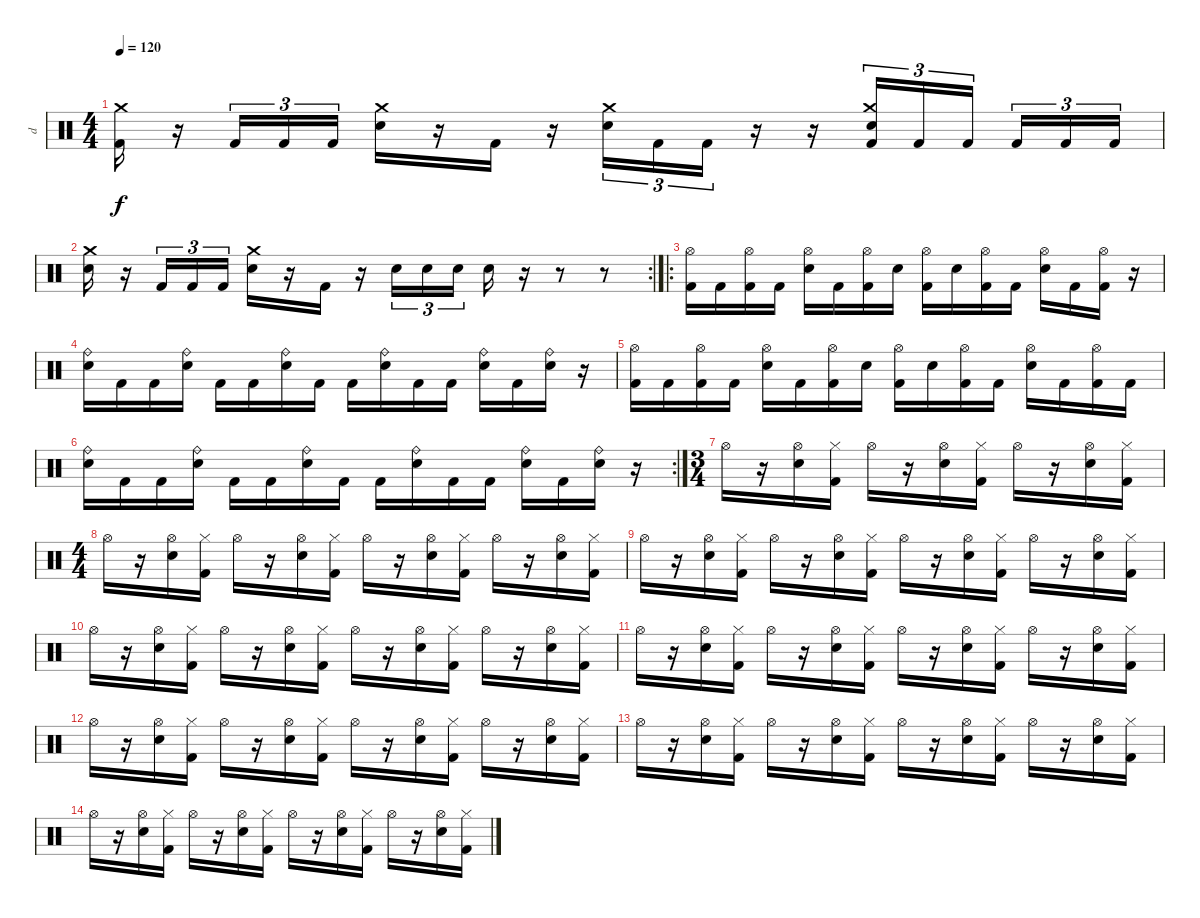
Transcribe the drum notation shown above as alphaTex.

\track ("d" "d") {instrument percussion}
\staff {score}
\articulation defaults
\ts (4 4)
\tempo 120
\clef neutral
\ks c
("Kick (hit) 2" "Crash medium (hit)").16{dy f} r.16 "Kick (hit) 2".16{tu (3 2)} "Kick (hit) 2".16{tu (3 2)} "Kick (hit) 2".16{tu (3 2)} ("Electric Snare (hit)" "Crash medium (hit)").16 r.16 "Kick (hit) 2".16 r.16 ("Electric Snare (hit)" "Crash medium (hit)").16{tu (3 2)} "Kick (hit) 2".16{tu (3 2)} "Kick (hit) 2".16{tu (3 2)} r.16 r.16 ("Kick (hit) 2" "Electric Snare (hit)" "Crash medium (hit)").16{tu (3 2)} "Kick (hit) 2".16{tu (3 2)} "Kick (hit) 2".16{tu (3 2)} "Kick (hit) 2".16{tu (3 2)} "Kick (hit) 2".16{tu (3 2)} "Kick (hit) 2".16{tu (3 2)} |
\rc 2
("Electric Snare (hit)" "Crash medium (hit)").16 r.16 "Kick (hit) 2".16{tu (3 2)} "Kick (hit) 2".16{tu (3 2)} "Kick (hit) 2".16{tu (3 2)} ("Electric Snare (hit)" "Crash medium (hit)").16 r.16 "Kick (hit) 2".16 r.16 "Electric Snare (hit)".16{tu (3 2)} "Electric Snare (hit)".16{tu (3 2)} "Electric Snare (hit)".16{tu (3 2)} "Electric Snare (hit)".16 r.16 r.8 r.8 |
\ro
("Hi-Hat (open)" "Kick (hit) 2").16 "Kick (hit) 2".16 ("Hi-Hat (open)" "Kick (hit) 2").16 "Kick (hit) 2".16 ("Hi-Hat (open)" "Electric Snare (hit)").16 "Kick (hit) 2".16 ("Hi-Hat (open)" "Kick (hit) 2").16 "Electric Snare (hit)".16 ("Hi-Hat (open)" "Kick (hit) 2").16 "Electric Snare (hit)".16 ("Hi-Hat (open)" "Kick (hit) 2").16 "Kick (hit) 2".16 ("Hi-Hat (open)" "Electric Snare (hit)").16 "Kick (hit) 2".16 ("Hi-Hat (open)" "Kick (hit) 2").16 r.16 |
("Ride (bell)" "Electric Snare (hit)").16 "Kick (hit) 2".16 "Kick (hit) 2".16 ("Ride (bell)" "Electric Snare (hit)").16 "Kick (hit) 2".16 "Kick (hit) 2".16 ("Ride (bell)" "Electric Snare (hit)").16 "Kick (hit) 2".16 "Kick (hit) 2".16 ("Ride (bell)" "Electric Snare (hit)").16 "Kick (hit) 2".16 "Kick (hit) 2".16 ("Ride (bell)" "Electric Snare (hit)").16 "Kick (hit) 2".16 ("Ride (bell)" "Electric Snare (hit)").16 r.16 |
("Hi-Hat (open)" "Kick (hit) 2").16 "Kick (hit) 2".16 ("Hi-Hat (open)" "Kick (hit) 2").16 "Kick (hit) 2".16 ("Hi-Hat (open)" "Electric Snare (hit)").16 "Kick (hit) 2".16 ("Hi-Hat (open)" "Kick (hit) 2").16 "Electric Snare (hit)".16 ("Hi-Hat (open)" "Kick (hit) 2").16 "Electric Snare (hit)".16 ("Hi-Hat (open)" "Kick (hit) 2").16 "Kick (hit) 2".16 ("Hi-Hat (open)" "Electric Snare (hit)").16 "Kick (hit) 2".16 ("Hi-Hat (open)" "Kick (hit) 2").16 "Kick (hit) 2".16 |
\rc 2
("Ride (bell)" "Electric Snare (hit)").16 "Kick (hit) 2".16 "Kick (hit) 2".16 ("Ride (bell)" "Electric Snare (hit)").16 "Kick (hit) 2".16 "Kick (hit) 2".16 ("Ride (bell)" "Electric Snare (hit)").16 "Kick (hit) 2".16 "Kick (hit) 2".16 ("Ride (bell)" "Electric Snare (hit)").16 "Kick (hit) 2".16 "Kick (hit) 2".16 ("Ride (bell)" "Electric Snare (hit)").16 "Kick (hit) 2".16 ("Ride (bell)" "Electric Snare (hit)").16 r.16 |
\ts (3 4)
"Hi-Hat (open)".16 r.16 ("Hi-Hat (open)" "Electric Snare (hit)").16 ("Hi-Hat (closed)" "Kick (hit) 2").16 "Hi-Hat (open)".16 r.16 ("Hi-Hat (open)" "Electric Snare (hit)").16 ("Hi-Hat (closed)" "Kick (hit) 2").16 "Hi-Hat (open)".16 r.16 ("Hi-Hat (open)" "Electric Snare (hit)").16 ("Hi-Hat (closed)" "Kick (hit) 2").16 |
\ts (4 4)
"Hi-Hat (open)".16 r.16 ("Hi-Hat (open)" "Electric Snare (hit)").16 ("Hi-Hat (closed)" "Kick (hit) 2").16 "Hi-Hat (open)".16 r.16 ("Hi-Hat (open)" "Electric Snare (hit)").16 ("Hi-Hat (closed)" "Kick (hit) 2").16 "Hi-Hat (open)".16 r.16 ("Hi-Hat (open)" "Electric Snare (hit)").16 ("Hi-Hat (closed)" "Kick (hit) 2").16 "Hi-Hat (open)".16 r.16 ("Hi-Hat (open)" "Electric Snare (hit)").16 ("Hi-Hat (closed)" "Kick (hit) 2").16 |
"Hi-Hat (open)".16 r.16 ("Hi-Hat (open)" "Electric Snare (hit)").16 ("Hi-Hat (closed)" "Kick (hit) 2").16 "Hi-Hat (open)".16 r.16 ("Hi-Hat (open)" "Electric Snare (hit)").16 ("Hi-Hat (closed)" "Kick (hit) 2").16 "Hi-Hat (open)".16 r.16 ("Hi-Hat (open)" "Electric Snare (hit)").16 ("Hi-Hat (closed)" "Kick (hit) 2").16 "Hi-Hat (open)".16 r.16 ("Hi-Hat (open)" "Electric Snare (hit)").16 ("Hi-Hat (closed)" "Kick (hit) 2").16 |
"Hi-Hat (open)".16 r.16 ("Hi-Hat (open)" "Electric Snare (hit)").16 ("Hi-Hat (closed)" "Kick (hit) 2").16 "Hi-Hat (open)".16 r.16 ("Hi-Hat (open)" "Electric Snare (hit)").16 ("Hi-Hat (closed)" "Kick (hit) 2").16 "Hi-Hat (open)".16 r.16 ("Hi-Hat (open)" "Electric Snare (hit)").16 ("Hi-Hat (closed)" "Kick (hit) 2").16 "Hi-Hat (open)".16 r.16 ("Hi-Hat (open)" "Electric Snare (hit)").16 ("Hi-Hat (closed)" "Kick (hit) 2").16 |
"Hi-Hat (open)".16 r.16 ("Hi-Hat (open)" "Electric Snare (hit)").16 ("Hi-Hat (closed)" "Kick (hit) 2").16 "Hi-Hat (open)".16 r.16 ("Hi-Hat (open)" "Electric Snare (hit)").16 ("Hi-Hat (closed)" "Kick (hit) 2").16 "Hi-Hat (open)".16 r.16 ("Hi-Hat (open)" "Electric Snare (hit)").16 ("Hi-Hat (closed)" "Kick (hit) 2").16 "Hi-Hat (open)".16 r.16 ("Hi-Hat (open)" "Electric Snare (hit)").16 ("Hi-Hat (closed)" "Kick (hit) 2").16 |
"Hi-Hat (open)".16 r.16 ("Hi-Hat (open)" "Electric Snare (hit)").16 ("Hi-Hat (closed)" "Kick (hit) 2").16 "Hi-Hat (open)".16 r.16 ("Hi-Hat (open)" "Electric Snare (hit)").16 ("Hi-Hat (closed)" "Kick (hit) 2").16 "Hi-Hat (open)".16 r.16 ("Hi-Hat (open)" "Electric Snare (hit)").16 ("Hi-Hat (closed)" "Kick (hit) 2").16 "Hi-Hat (open)".16 r.16 ("Hi-Hat (open)" "Electric Snare (hit)").16 ("Hi-Hat (closed)" "Kick (hit) 2").16 |
"Hi-Hat (open)".16 r.16 ("Hi-Hat (open)" "Electric Snare (hit)").16 ("Hi-Hat (closed)" "Kick (hit) 2").16 "Hi-Hat (open)".16 r.16 ("Hi-Hat (open)" "Electric Snare (hit)").16 ("Hi-Hat (closed)" "Kick (hit) 2").16 "Hi-Hat (open)".16 r.16 ("Hi-Hat (open)" "Electric Snare (hit)").16 ("Hi-Hat (closed)" "Kick (hit) 2").16 "Hi-Hat (open)".16 r.16 ("Hi-Hat (open)" "Electric Snare (hit)").16 ("Hi-Hat (closed)" "Kick (hit) 2").16 |
"Hi-Hat (open)".16 r.16 ("Hi-Hat (open)" "Electric Snare (hit)").16 ("Hi-Hat (closed)" "Kick (hit) 2").16 "Hi-Hat (open)".16 r.16 ("Hi-Hat (open)" "Electric Snare (hit)").16 ("Hi-Hat (closed)" "Kick (hit) 2").16 "Hi-Hat (open)".16 r.16 ("Hi-Hat (open)" "Electric Snare (hit)").16 ("Hi-Hat (closed)" "Kick (hit) 2").16 "Hi-Hat (open)".16 r.16 ("Hi-Hat (open)" "Electric Snare (hit)").16 ("Hi-Hat (closed)" "Kick (hit) 2").16
